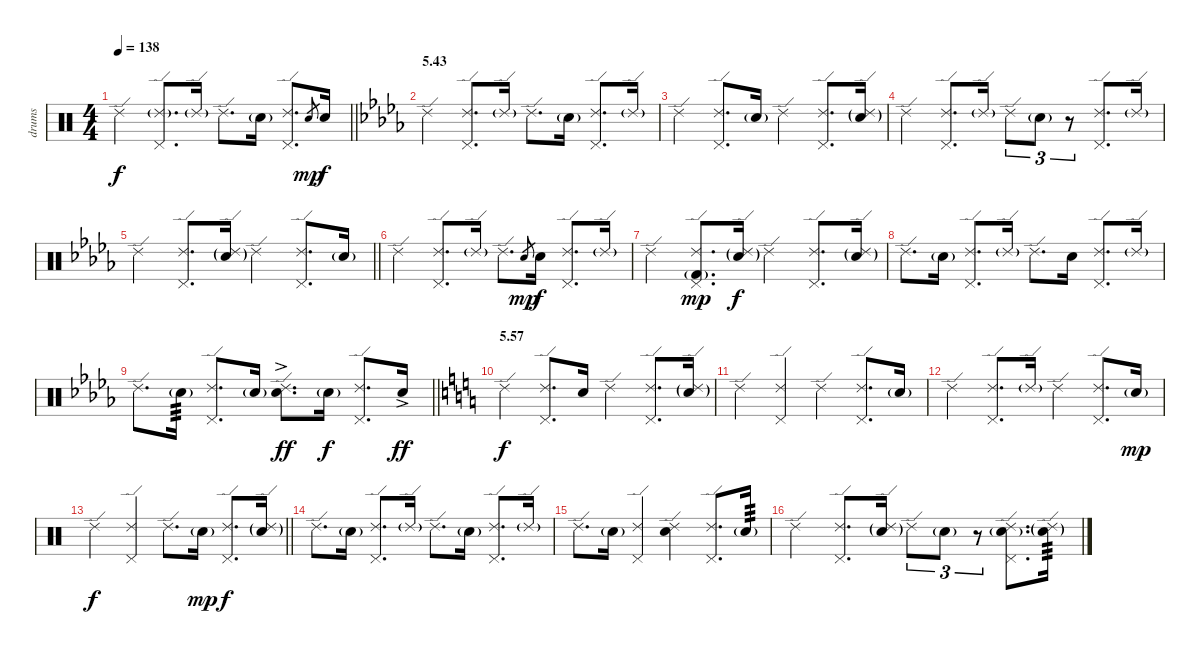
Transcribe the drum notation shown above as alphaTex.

\track ("drums" "drums") {instrument percussion}
\staff {score}
\articulation defaults
\ts (4 4)
\tempo 138
\clef neutral
\barLineRight lightlight
\ks c "Ride (edge) 2".4{dy f}
("Ride (edge) 2"{g} "Pedal Hi-Hat (hit)").8{d} "Ride (edge) 2"{g}.16 "Ride (edge) 2".8{d} "Electric Snare (hit)"{g}.16 ("Ride (edge) 2" "Pedal Hi-Hat (hit)").8{d} "Electric Snare (hit)".8{gr dy mp} "Electric Snare (hit)".16{dy f} |
\section ("" "5.43")
\ks db "Ride (edge) 2".4
("Ride (edge) 2" "Pedal Hi-Hat (hit)").8{d} "Ride (edge) 2"{g}.16 "Ride (edge) 2".8{d} "Electric Snare (hit)"{g}.16 ("Ride (edge) 2" "Pedal Hi-Hat (hit)").8{d} "Ride (edge) 2"{g}.16 |
"Ride (edge) 2".4 ("Ride (edge) 2" "Pedal Hi-Hat (hit)").8{d} "Electric Snare (hit)"{g}.16 "Ride (edge) 2".4 ("Ride (edge) 2" "Pedal Hi-Hat (hit)").8{d} ("Ride (edge) 2"{g} "Electric Snare (hit)"{g}).16 |
"Ride (edge) 2".4 ("Ride (edge) 2" "Pedal Hi-Hat (hit)").8{d} "Ride (edge) 2"{g}.16 "Ride (edge) 2".8{tu (3 2)} "Electric Snare (hit)"{g}.8{tu (3 2)} r.8{tu (3 2)} ("Ride (edge) 2" "Pedal Hi-Hat (hit)").8{d} "Ride (edge) 2"{g}.16 |
\barLineRight lightlight "Ride (edge) 2".4
("Ride (edge) 2" "Pedal Hi-Hat (hit)").8{d} ("Ride (edge) 2"{g} "Electric Snare (hit)"{g}).16 "Ride (edge) 2".4 ("Ride (edge) 2" "Pedal Hi-Hat (hit)").8{d} "Electric Snare (hit)"{g}.16 |
"Ride (edge) 2".4 ("Ride (edge) 2" "Pedal Hi-Hat (hit)").8{d} "Ride (edge) 2"{g}.16 "Ride (edge) 2".8{d} "Electric Snare (hit)".8{gr dy mp} "Electric Snare (hit)".16{dy f} ("Ride (edge) 2" "Pedal Hi-Hat (hit)").8{d} "Ride (edge) 2"{g}.16 |
"Ride (edge) 2".4 ("Ride (edge) 2" "Pedal Hi-Hat (hit)" "Kick (hit) 2"{g}).8{d dy mp} ("Ride (edge) 2"{g} "Electric Snare (hit)"{g}).16{dy f} "Ride (edge) 2".4 ("Ride (edge) 2" "Pedal Hi-Hat (hit)").8{d} ("Ride (edge) 2"{g} "Electric Snare (hit)"{g}).16 |
"Ride (edge) 2".8{d} "Electric Snare (hit)"{g}.16 ("Ride (edge) 2" "Pedal Hi-Hat (hit)").8{d} "Ride (edge) 2"{g}.16 "Ride (edge) 2".8{d} "Electric Snare (hit)".16 ("Ride (edge) 2" "Pedal Hi-Hat (hit)").8{d} "Ride (edge) 2"{g}.16 |
\barLineRight lightlight "Ride (edge) 2".8{d} "Electric Snare (hit)"{g}.16{tp 3}
("Ride (edge) 2" "Pedal Hi-Hat (hit)").8{d} "Electric Snare (hit)"{g}.16 ("Ride (edge) 2" "Electric Snare (hit)"{ac}).8{d dy ff} "Electric Snare (hit)"{g}.16{dy f} ("Ride (edge) 2" "Pedal Hi-Hat (hit)").8{d} "Electric Snare (hit)"{ac}.16{dy ff} |
\section ("" "5.57")
\ks c "Ride (edge) 2".4{dy f}
("Ride (edge) 2" "Pedal Hi-Hat (hit)").8{d} "Electric Snare (hit)".16 "Ride (edge) 2".4 ("Ride (edge) 2" "Pedal Hi-Hat (hit)").8{d} ("Ride (edge) 2"{g} "Electric Snare (hit)"{g}).16 |
"Ride (edge) 2".4 ("Ride (edge) 2" "Pedal Hi-Hat (hit)").4 "Ride (edge) 2".4 ("Ride (edge) 2" "Pedal Hi-Hat (hit)").8{d} "Electric Snare (hit)"{g}.16 |
"Ride (edge) 2".4 ("Ride (edge) 2" "Pedal Hi-Hat (hit)").8{d} "Ride (edge) 2"{g}.16 "Ride (edge) 2".4 ("Ride (edge) 2" "Pedal Hi-Hat (hit)").8{d} "Electric Snare (hit)"{g}.16{dy mp} |
\barLineRight lightlight "Ride (edge) 2".4{dy f}
("Ride (edge) 2" "Pedal Hi-Hat (hit)").4 "Ride (edge) 2".8{d} "Electric Snare (hit)"{g}.16{dy mp} ("Ride (edge) 2" "Pedal Hi-Hat (hit)").8{d dy f} ("Ride (edge) 2"{g} "Electric Snare (hit)"{g}).16 |
"Ride (edge) 2".8{d} "Electric Snare (hit)"{g}.16 ("Ride (edge) 2" "Pedal Hi-Hat (hit)").8{d} "Ride (edge) 2"{g}.16 "Ride (edge) 2".8{d} "Electric Snare (hit)"{g}.16 ("Ride (edge) 2" "Pedal Hi-Hat (hit)").8{d} "Ride (edge) 2"{g}.16 |
"Ride (edge) 2".8{d} "Electric Snare (hit)"{g}.16 ("Ride (edge) 2" "Pedal Hi-Hat (hit)").4 ("Ride (edge) 2" "Electric Snare (hit)").4 ("Ride (edge) 2" "Pedal Hi-Hat (hit)").8{d} "Electric Snare (hit)"{g}.16{tp 3} |
"Ride (edge) 2".4 ("Ride (edge) 2" "Pedal Hi-Hat (hit)").8{d} ("Ride (edge) 2"{g} "Electric Snare (hit)"{g}).16 "Ride (edge) 2".8{tu (3 2)} "Electric Snare (hit)"{g}.8{tu (3 2)} r.8{tu (3 2)} ("Ride (edge) 2" "Pedal Hi-Hat (hit)" "Electric Snare (hit)"{g}).8{d} ("Ride (edge) 2"{g} "Electric Snare (hit)"{g}).16{tp 3}
